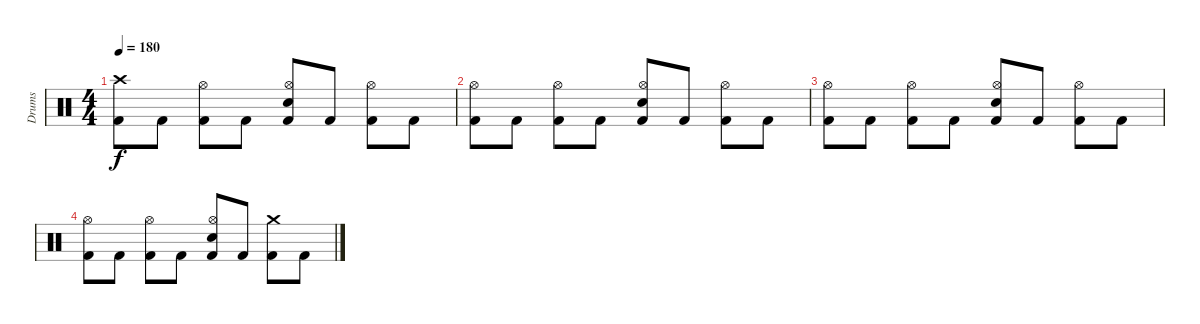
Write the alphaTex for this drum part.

\track ("Drums" "Drums") {instrument percussion}
\staff {score}
\articulation defaults
\ts (4 4)
\tempo 180
\clef neutral
\ks c
("Crash high (hit)" "Kick (hit) 2").8{dy f} "Kick (hit) 2".8 ("Hi-Hat (open)" "Kick (hit) 2").8 "Kick (hit) 2".8 ("Hi-Hat (open)" "Electric Snare (hit)" "Kick (hit) 2").8 "Kick (hit) 2".8 ("Hi-Hat (open)" "Kick (hit) 2").8 "Kick (hit) 2".8 |
("Hi-Hat (open)" "Kick (hit) 2").8 "Kick (hit) 2".8 ("Hi-Hat (open)" "Kick (hit) 2").8 "Kick (hit) 2".8 ("Hi-Hat (open)" "Electric Snare (hit)" "Kick (hit) 2").8 "Kick (hit) 2".8 ("Hi-Hat (open)" "Kick (hit) 2").8 "Kick (hit) 2".8 |
("Hi-Hat (open)" "Kick (hit) 2").8 "Kick (hit) 2".8 ("Hi-Hat (open)" "Kick (hit) 2").8 "Kick (hit) 2".8 ("Hi-Hat (open)" "Electric Snare (hit)" "Kick (hit) 2").8 "Kick (hit) 2".8 ("Hi-Hat (open)" "Kick (hit) 2").8 "Kick (hit) 2".8 |
("Hi-Hat (open)" "Kick (hit) 2").8 "Kick (hit) 2".8 ("Hi-Hat (open)" "Kick (hit) 2").8 "Kick (hit) 2".8 ("Hi-Hat (open)" "Electric Snare (hit)" "Kick (hit) 2").8 "Kick (hit) 2".8 ("Crash medium (hit)" "Kick (hit) 2").8 "Kick (hit) 2".8
